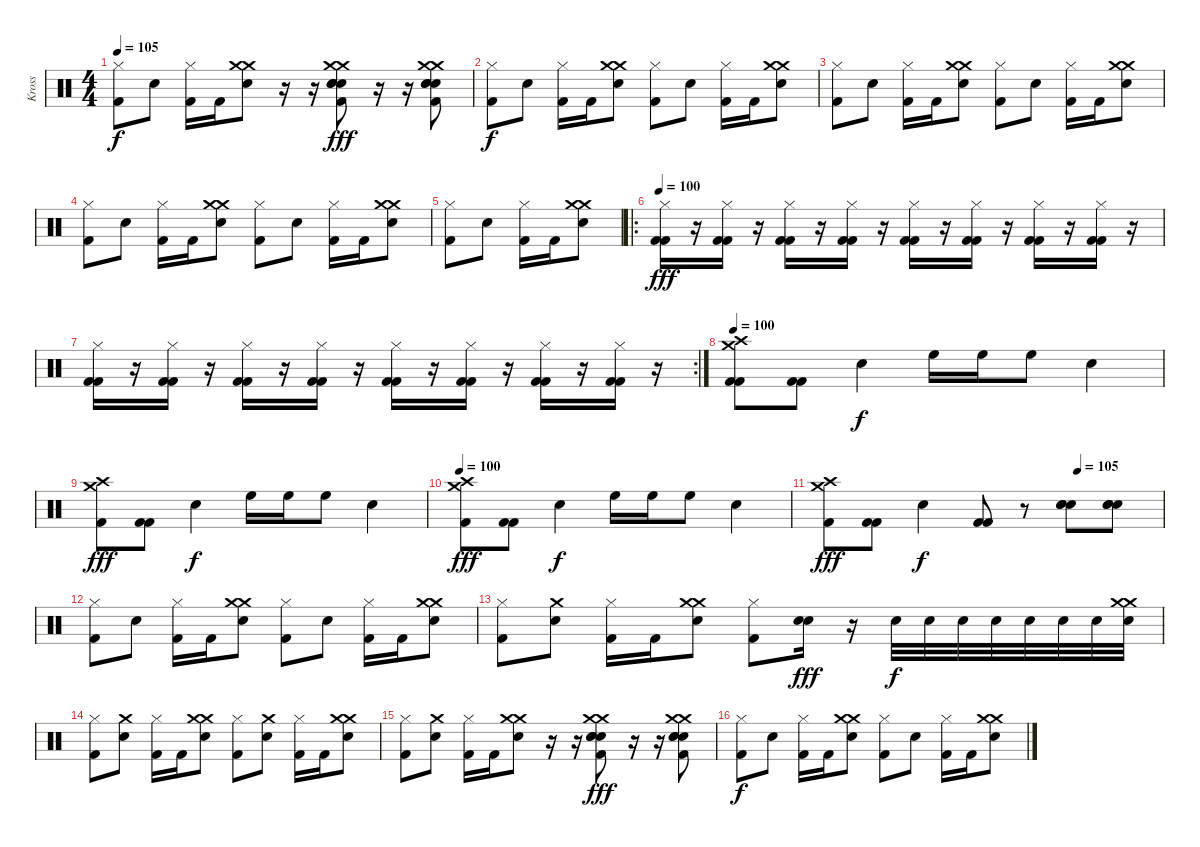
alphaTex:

\track ("Kross" "Kross") {instrument percussion}
\staff {score}
\articulation defaults
\ts (4 4)
\tempo 105
\clef neutral
\ks c
("Hi-Hat (closed)" "Kick (hit) 2").8{dy f} "Snare (hit) 2".8 ("Hi-Hat (closed)" "Kick (hit) 2").16 "Kick (hit) 2".16 ("Crash medium (hit)" "Crash medium (hit)" "Snare (hit) 2").8 r.16 r.16 ("Crash medium (hit)" "Crash medium (hit)" "Snare (hit) 2" "Snare (hit) 2" "Snare (hit) 2" "Kick (hit) 2").8{dy fff} r.16 r.16 ("Crash medium (hit)" "Crash medium (hit)" "Snare (hit) 2" "Snare (hit) 2" "Snare (hit) 2" "Kick (hit) 2").8 |
("Hi-Hat (closed)" "Kick (hit) 2").8{dy f} "Snare (hit) 2".8 ("Hi-Hat (closed)" "Kick (hit) 2").16 "Kick (hit) 2".16 ("Crash medium (hit)" "Crash medium (hit)" "Snare (hit) 2").8 ("Hi-Hat (closed)" "Kick (hit) 2").8 "Snare (hit) 2".8 ("Hi-Hat (closed)" "Kick (hit) 2").16 "Kick (hit) 2".16 ("Crash medium (hit)" "Crash medium (hit)" "Snare (hit) 2").8 |
("Hi-Hat (closed)" "Kick (hit) 2").8 "Snare (hit) 2".8 ("Hi-Hat (closed)" "Kick (hit) 2").16 "Kick (hit) 2".16 ("Crash medium (hit)" "Crash medium (hit)" "Snare (hit) 2").8 ("Hi-Hat (closed)" "Kick (hit) 2").8 "Snare (hit) 2".8 ("Hi-Hat (closed)" "Kick (hit) 2").16 "Kick (hit) 2".16 ("Crash medium (hit)" "Crash medium (hit)" "Snare (hit) 2").8 |
("Hi-Hat (closed)" "Kick (hit) 2").8 "Snare (hit) 2".8 ("Hi-Hat (closed)" "Kick (hit) 2").16 "Kick (hit) 2".16 ("Crash medium (hit)" "Crash medium (hit)" "Snare (hit) 2").8 ("Hi-Hat (closed)" "Kick (hit) 2").8 "Snare (hit) 2".8 ("Hi-Hat (closed)" "Kick (hit) 2").16 "Kick (hit) 2".16 ("Crash medium (hit)" "Crash medium (hit)" "Snare (hit) 2").8 |
("Hi-Hat (closed)" "Kick (hit) 2").8 "Snare (hit) 2".8 ("Hi-Hat (closed)" "Kick (hit) 2").16 "Kick (hit) 2".16 ("Crash medium (hit)" "Crash medium (hit)" "Snare (hit) 2").8 |
\ro
\tempo 100
("Hi-Hat (closed)" "Kick (hit) 2" "Kick (hit) 2").16{dy fff} r.16 ("Hi-Hat (closed)" "Kick (hit) 2" "Kick (hit) 2").16 r.16 ("Hi-Hat (closed)" "Kick (hit) 2" "Kick (hit) 2").16 r.16 ("Hi-Hat (closed)" "Kick (hit) 2" "Kick (hit) 2").16 r.16 ("Hi-Hat (closed)" "Kick (hit) 2" "Kick (hit) 2").16 r.16 ("Hi-Hat (closed)" "Kick (hit) 2" "Kick (hit) 2").16 r.16 ("Hi-Hat (closed)" "Kick (hit) 2" "Kick (hit) 2").16 r.16 ("Hi-Hat (closed)" "Kick (hit) 2" "Kick (hit) 2").16 r.16 |
\rc 2
("Hi-Hat (closed)" "Kick (hit) 2" "Kick (hit) 2").16 r.16 ("Hi-Hat (closed)" "Kick (hit) 2" "Kick (hit) 2").16 r.16 ("Hi-Hat (closed)" "Kick (hit) 2" "Kick (hit) 2").16 r.16 ("Hi-Hat (closed)" "Kick (hit) 2" "Kick (hit) 2").16 r.16 ("Hi-Hat (closed)" "Kick (hit) 2" "Kick (hit) 2").16 r.16 ("Hi-Hat (closed)" "Kick (hit) 2" "Kick (hit) 2").16 r.16 ("Hi-Hat (closed)" "Kick (hit) 2" "Kick (hit) 2").16 r.16 ("Hi-Hat (closed)" "Kick (hit) 2" "Kick (hit) 2").16 r.16 |
\tempo 100
("Kick (hit) 2" "Crash high (hit)" "Crash medium (hit)" "Kick (hit) 2").8 ("Kick (hit) 2" "Kick (hit) 2").8 "Snare (hit) 2".4{dy f} "High Floor Tom (hit)".16 "High Floor Tom (hit)".16 "High Floor Tom (hit)".8 "Snare (hit) 2".4 |
("Crash high (hit)" "Crash medium (hit)" "Kick (hit) 2").8{dy fff} ("Kick (hit) 2" "Kick (hit) 2").8 "Snare (hit) 2".4{dy f} "High Floor Tom (hit)".16 "High Floor Tom (hit)".16 "High Floor Tom (hit)".8 "Snare (hit) 2".4 |
\tempo 100
("Crash high (hit)" "Crash medium (hit)" "Kick (hit) 2").8{dy fff} ("Kick (hit) 2" "Kick (hit) 2").8 "Snare (hit) 2".4{dy f} "High Floor Tom (hit)".16 "High Floor Tom (hit)".16 "High Floor Tom (hit)".8 "Snare (hit) 2".4 |
\tempo (105 0.75)
("Crash high (hit)" "Crash medium (hit)" "Kick (hit) 2").8{dy fff} ("Kick (hit) 2" "Kick (hit) 2").8 "Snare (hit) 2".4{dy f} ("Kick (hit) 2" "Kick (hit) 2").8 r.8 ("Snare (hit) 2" "Snare (hit) 2" "Snare (hit) 2").8 ("Snare (hit) 2" "Snare (hit) 2" "Snare (hit) 2").8 |
("Hi-Hat (closed)" "Kick (hit) 2").8 "Snare (hit) 2".8 ("Hi-Hat (closed)" "Kick (hit) 2").16 "Kick (hit) 2".16 ("Crash medium (hit)" "Crash medium (hit)" "Snare (hit) 2").8 ("Hi-Hat (closed)" "Kick (hit) 2").8 "Snare (hit) 2".8 ("Hi-Hat (closed)" "Kick (hit) 2").16 "Kick (hit) 2".16 ("Crash medium (hit)" "Crash medium (hit)" "Snare (hit) 2").8 |
("Hi-Hat (closed)" "Kick (hit) 2").8 ("Crash medium (hit)" "Snare (hit) 2").8 ("Hi-Hat (closed)" "Kick (hit) 2").16 "Kick (hit) 2".16 ("Crash medium (hit)" "Crash medium (hit)" "Snare (hit) 2").8 ("Hi-Hat (closed)" "Kick (hit) 2").8 ("Snare (hit) 2" "Snare (hit) 2").16{dy fff} r.16 "Snare (hit) 2".32{dy f} "Snare (hit) 2".32 "Snare (hit) 2".32 "Snare (hit) 2".32 "Snare (hit) 2".32 "Snare (hit) 2".32 "Snare (hit) 2".32 ("Crash medium (hit)" "Crash medium (hit)" "Snare (hit) 2").32 |
("Hi-Hat (closed)" "Kick (hit) 2").8 ("Crash medium (hit)" "Snare (hit) 2").8 ("Hi-Hat (closed)" "Kick (hit) 2").16 "Kick (hit) 2".16 ("Crash medium (hit)" "Crash medium (hit)" "Snare (hit) 2").8 ("Hi-Hat (closed)" "Kick (hit) 2").8 ("Crash medium (hit)" "Snare (hit) 2").8 ("Hi-Hat (closed)" "Kick (hit) 2").16 "Kick (hit) 2".16 ("Crash medium (hit)" "Crash medium (hit)" "Snare (hit) 2").8 |
("Hi-Hat (closed)" "Kick (hit) 2").8 ("Crash medium (hit)" "Snare (hit) 2").8 ("Hi-Hat (closed)" "Kick (hit) 2").16 "Kick (hit) 2".16 ("Crash medium (hit)" "Crash medium (hit)" "Snare (hit) 2").8 r.16 r.16 ("Crash medium (hit)" "Crash medium (hit)" "Snare (hit) 2" "Snare (hit) 2" "Snare (hit) 2" "Kick (hit) 2").8{dy fff} r.16 r.16 ("Crash medium (hit)" "Crash medium (hit)" "Snare (hit) 2" "Snare (hit) 2" "Snare (hit) 2" "Kick (hit) 2").8 |
("Hi-Hat (closed)" "Kick (hit) 2").8{dy f} "Snare (hit) 2".8 ("Hi-Hat (closed)" "Kick (hit) 2").16 "Kick (hit) 2".16 ("Crash medium (hit)" "Crash medium (hit)" "Snare (hit) 2").8 ("Hi-Hat (closed)" "Kick (hit) 2").8 "Snare (hit) 2".8 ("Hi-Hat (closed)" "Kick (hit) 2").16 "Kick (hit) 2".16 ("Crash medium (hit)" "Crash medium (hit)" "Snare (hit) 2").8
